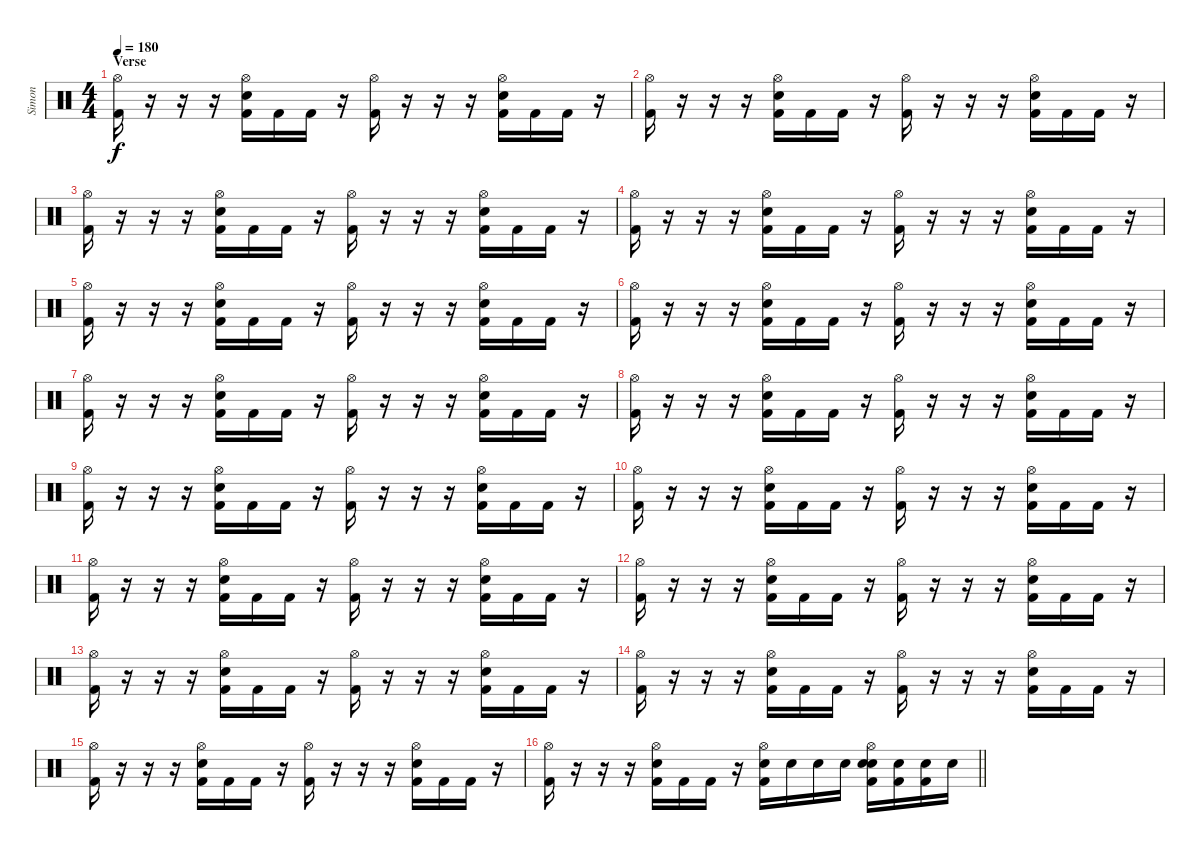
\track ("Simon" "Simon") {instrument percussion}
\staff {score}
\articulation defaults
\ts (4 4)
\section ("" "Verse")
\tempo 180
\clef neutral
\ks c
("Hi-Hat (open)" "Kick (hit) 2").16{dy f} r.16 r.16 r.16 ("Hi-Hat (open)" "Electric Snare (hit)" "Kick (hit) 2").16 "Kick (hit) 2".16 "Kick (hit) 2".16 r.16 ("Hi-Hat (open)" "Kick (hit) 2").16 r.16 r.16 r.16 ("Hi-Hat (open)" "Electric Snare (hit)" "Kick (hit) 2").16 "Kick (hit) 2".16 "Kick (hit) 2".16 r.16 |
("Hi-Hat (open)" "Kick (hit) 2").16 r.16 r.16 r.16 ("Hi-Hat (open)" "Electric Snare (hit)" "Kick (hit) 2").16 "Kick (hit) 2".16 "Kick (hit) 2".16 r.16 ("Hi-Hat (open)" "Kick (hit) 2").16 r.16 r.16 r.16 ("Hi-Hat (open)" "Electric Snare (hit)" "Kick (hit) 2").16 "Kick (hit) 2".16 "Kick (hit) 2".16 r.16 |
("Hi-Hat (open)" "Kick (hit) 2").16 r.16 r.16 r.16 ("Hi-Hat (open)" "Electric Snare (hit)" "Kick (hit) 2").16 "Kick (hit) 2".16 "Kick (hit) 2".16 r.16 ("Hi-Hat (open)" "Kick (hit) 2").16 r.16 r.16 r.16 ("Hi-Hat (open)" "Electric Snare (hit)" "Kick (hit) 2").16 "Kick (hit) 2".16 "Kick (hit) 2".16 r.16 |
("Hi-Hat (open)" "Kick (hit) 2").16 r.16 r.16 r.16 ("Hi-Hat (open)" "Electric Snare (hit)" "Kick (hit) 2").16 "Kick (hit) 2".16 "Kick (hit) 2".16 r.16 ("Hi-Hat (open)" "Kick (hit) 2").16 r.16 r.16 r.16 ("Hi-Hat (open)" "Electric Snare (hit)" "Kick (hit) 2").16 "Kick (hit) 2".16 "Kick (hit) 2".16 r.16 |
("Hi-Hat (open)" "Kick (hit) 2").16 r.16 r.16 r.16 ("Hi-Hat (open)" "Electric Snare (hit)" "Kick (hit) 2").16 "Kick (hit) 2".16 "Kick (hit) 2".16 r.16 ("Hi-Hat (open)" "Kick (hit) 2").16 r.16 r.16 r.16 ("Hi-Hat (open)" "Electric Snare (hit)" "Kick (hit) 2").16 "Kick (hit) 2".16 "Kick (hit) 2".16 r.16 |
("Hi-Hat (open)" "Kick (hit) 2").16 r.16 r.16 r.16 ("Hi-Hat (open)" "Electric Snare (hit)" "Kick (hit) 2").16 "Kick (hit) 2".16 "Kick (hit) 2".16 r.16 ("Hi-Hat (open)" "Kick (hit) 2").16 r.16 r.16 r.16 ("Hi-Hat (open)" "Electric Snare (hit)" "Kick (hit) 2").16 "Kick (hit) 2".16 "Kick (hit) 2".16 r.16 |
("Hi-Hat (open)" "Kick (hit) 2").16 r.16 r.16 r.16 ("Hi-Hat (open)" "Electric Snare (hit)" "Kick (hit) 2").16 "Kick (hit) 2".16 "Kick (hit) 2".16 r.16 ("Hi-Hat (open)" "Kick (hit) 2").16 r.16 r.16 r.16 ("Hi-Hat (open)" "Electric Snare (hit)" "Kick (hit) 2").16 "Kick (hit) 2".16 "Kick (hit) 2".16 r.16 |
("Hi-Hat (open)" "Kick (hit) 2").16 r.16 r.16 r.16 ("Hi-Hat (open)" "Electric Snare (hit)" "Kick (hit) 2").16 "Kick (hit) 2".16 "Kick (hit) 2".16 r.16 ("Hi-Hat (open)" "Kick (hit) 2").16 r.16 r.16 r.16 ("Hi-Hat (open)" "Electric Snare (hit)" "Kick (hit) 2").16 "Kick (hit) 2".16 "Kick (hit) 2".16 r.16 |
("Hi-Hat (open)" "Kick (hit) 2").16 r.16 r.16 r.16 ("Hi-Hat (open)" "Electric Snare (hit)" "Kick (hit) 2").16 "Kick (hit) 2".16 "Kick (hit) 2".16 r.16 ("Hi-Hat (open)" "Kick (hit) 2").16 r.16 r.16 r.16 ("Hi-Hat (open)" "Electric Snare (hit)" "Kick (hit) 2").16 "Kick (hit) 2".16 "Kick (hit) 2".16 r.16 |
("Hi-Hat (open)" "Kick (hit) 2").16 r.16 r.16 r.16 ("Hi-Hat (open)" "Electric Snare (hit)" "Kick (hit) 2").16 "Kick (hit) 2".16 "Kick (hit) 2".16 r.16 ("Hi-Hat (open)" "Kick (hit) 2").16 r.16 r.16 r.16 ("Hi-Hat (open)" "Electric Snare (hit)" "Kick (hit) 2").16 "Kick (hit) 2".16 "Kick (hit) 2".16 r.16 |
("Hi-Hat (open)" "Kick (hit) 2").16 r.16 r.16 r.16 ("Hi-Hat (open)" "Electric Snare (hit)" "Kick (hit) 2").16 "Kick (hit) 2".16 "Kick (hit) 2".16 r.16 ("Hi-Hat (open)" "Kick (hit) 2").16 r.16 r.16 r.16 ("Hi-Hat (open)" "Electric Snare (hit)" "Kick (hit) 2").16 "Kick (hit) 2".16 "Kick (hit) 2".16 r.16 |
("Hi-Hat (open)" "Kick (hit) 2").16 r.16 r.16 r.16 ("Hi-Hat (open)" "Electric Snare (hit)" "Kick (hit) 2").16 "Kick (hit) 2".16 "Kick (hit) 2".16 r.16 ("Hi-Hat (open)" "Kick (hit) 2").16 r.16 r.16 r.16 ("Hi-Hat (open)" "Electric Snare (hit)" "Kick (hit) 2").16 "Kick (hit) 2".16 "Kick (hit) 2".16 r.16 |
("Hi-Hat (open)" "Kick (hit) 2").16 r.16 r.16 r.16 ("Hi-Hat (open)" "Electric Snare (hit)" "Kick (hit) 2").16 "Kick (hit) 2".16 "Kick (hit) 2".16 r.16 ("Hi-Hat (open)" "Kick (hit) 2").16 r.16 r.16 r.16 ("Hi-Hat (open)" "Electric Snare (hit)" "Kick (hit) 2").16 "Kick (hit) 2".16 "Kick (hit) 2".16 r.16 |
("Hi-Hat (open)" "Kick (hit) 2").16 r.16 r.16 r.16 ("Hi-Hat (open)" "Electric Snare (hit)" "Kick (hit) 2").16 "Kick (hit) 2".16 "Kick (hit) 2".16 r.16 ("Hi-Hat (open)" "Kick (hit) 2").16 r.16 r.16 r.16 ("Hi-Hat (open)" "Electric Snare (hit)" "Kick (hit) 2").16 "Kick (hit) 2".16 "Kick (hit) 2".16 r.16 |
("Hi-Hat (open)" "Kick (hit) 2").16 r.16 r.16 r.16 ("Hi-Hat (open)" "Electric Snare (hit)" "Kick (hit) 2").16 "Kick (hit) 2".16 "Kick (hit) 2".16 r.16 ("Hi-Hat (open)" "Kick (hit) 2").16 r.16 r.16 r.16 ("Hi-Hat (open)" "Electric Snare (hit)" "Kick (hit) 2").16 "Kick (hit) 2".16 "Kick (hit) 2".16 r.16 |
\barLineRight lightlight
("Hi-Hat (open)" "Kick (hit) 2").16 r.16 r.16 r.16 ("Hi-Hat (open)" "Electric Snare (hit)" "Kick (hit) 2").16 "Kick (hit) 2".16 "Kick (hit) 2".16 r.16 ("Hi-Hat (open)" "Electric Snare (hit)" "Kick (hit) 2").16 "Electric Snare (hit)".16 "Electric Snare (hit)".16 "Electric Snare (hit)".16 ("Hi-Hat (open)" "Electric Snare (hit)" "Electric Snare (hit)" "Kick (hit) 2").16 ("Electric Snare (hit)" "Kick (hit) 2").16 ("Electric Snare (hit)" "Kick (hit) 2").16 "Electric Snare (hit)".16
